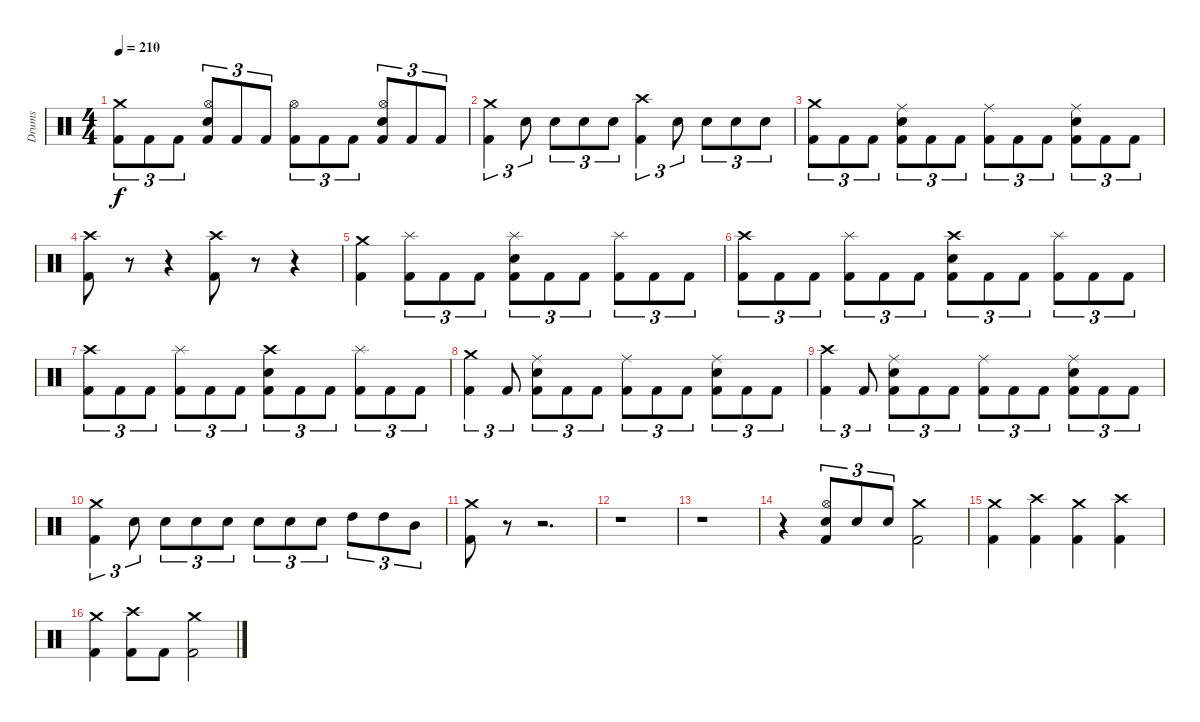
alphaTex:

\track ("Drums" "Drums") {instrument percussion}
\staff {score}
\articulation defaults
\ts (4 4)
\tempo 210
\clef neutral
\ks c
("Crash medium (hit)" "Kick (hit) 2").8{tu (3 2) dy f} "Kick (hit) 2".8{tu (3 2)} "Kick (hit) 2".8{tu (3 2)} ("Hi-Hat (open)" "Electric Snare (hit)" "Kick (hit) 2").8{tu (3 2)} "Kick (hit) 2".8{tu (3 2)} "Kick (hit) 2".8{tu (3 2)} ("Hi-Hat (open)" "Kick (hit) 2").8{tu (3 2)} "Kick (hit) 2".8{tu (3 2)} "Kick (hit) 2".8{tu (3 2)} ("Hi-Hat (open)" "Electric Snare (hit)" "Kick (hit) 2").8{tu (3 2)} "Kick (hit) 2".8{tu (3 2)} "Kick (hit) 2".8{tu (3 2)} |
("Crash medium (hit)" "Kick (hit) 2").4{tu (3 2)} "Electric Snare (hit)".8{tu (3 2)} "Electric Snare (hit)".8{tu (3 2)} "Electric Snare (hit)".8{tu (3 2)} "Electric Snare (hit)".8{tu (3 2)} ("Crash high (hit)" "Kick (hit) 2").4{tu (3 2)} "Electric Snare (hit)".8{tu (3 2)} "Electric Snare (hit)".8{tu (3 2)} "Electric Snare (hit)".8{tu (3 2)} "Electric Snare (hit)".8{tu (3 2)} |
("Crash medium (hit)" "Kick (hit) 2").8{tu (3 2)} "Kick (hit) 2".8{tu (3 2)} "Kick (hit) 2".8{tu (3 2)} ("Ride (middle)" "Electric Snare (hit)" "Kick (hit) 2").8{tu (3 2)} "Kick (hit) 2".8{tu (3 2)} "Kick (hit) 2".8{tu (3 2)} ("Ride (middle)" "Kick (hit) 2").8{tu (3 2)} "Kick (hit) 2".8{tu (3 2)} "Kick (hit) 2".8{tu (3 2)} ("Ride (middle)" "Electric Snare (hit)" "Kick (hit) 2").8{tu (3 2)} "Kick (hit) 2".8{tu (3 2)} "Kick (hit) 2".8{tu (3 2)} |
("Crash high (hit)" "Kick (hit) 2").8 r.8 r.4 ("Crash high (hit)" "Kick (hit) 2").8 r.8 r.4 |
("Crash medium (hit)" "Kick (hit) 2").4 ("Splash (hit)" "Kick (hit) 2").8{tu (3 2)} "Kick (hit) 2".8{tu (3 2)} "Kick (hit) 2".8{tu (3 2)} ("Splash (hit)" "Electric Snare (hit)" "Kick (hit) 2").8{tu (3 2)} "Kick (hit) 2".8{tu (3 2)} "Kick (hit) 2".8{tu (3 2)} ("Splash (hit)" "Kick (hit) 2").8{tu (3 2)} "Kick (hit) 2".8{tu (3 2)} "Kick (hit) 2".8{tu (3 2)} |
("Crash high (hit)" "Kick (hit) 2").8{tu (3 2)} "Kick (hit) 2".8{tu (3 2)} "Kick (hit) 2".8{tu (3 2)} ("Splash (hit)" "Kick (hit) 2").8{tu (3 2)} "Kick (hit) 2".8{tu (3 2)} "Kick (hit) 2".8{tu (3 2)} ("Crash high (hit)" "Electric Snare (hit)" "Kick (hit) 2").8{tu (3 2)} "Kick (hit) 2".8{tu (3 2)} "Kick (hit) 2".8{tu (3 2)} ("Splash (hit)" "Kick (hit) 2").8{tu (3 2)} "Kick (hit) 2".8{tu (3 2)} "Kick (hit) 2".8{tu (3 2)} |
("Crash high (hit)" "Kick (hit) 2").8{tu (3 2)} "Kick (hit) 2".8{tu (3 2)} "Kick (hit) 2".8{tu (3 2)} ("Splash (hit)" "Kick (hit) 2").8{tu (3 2)} "Kick (hit) 2".8{tu (3 2)} "Kick (hit) 2".8{tu (3 2)} ("Crash high (hit)" "Electric Snare (hit)" "Kick (hit) 2").8{tu (3 2)} "Kick (hit) 2".8{tu (3 2)} "Kick (hit) 2".8{tu (3 2)} ("Splash (hit)" "Kick (hit) 2").8{tu (3 2)} "Kick (hit) 2".8{tu (3 2)} "Kick (hit) 2".8{tu (3 2)} |
("Crash medium (hit)" "Kick (hit) 2").4{tu (3 2)} "Kick (hit) 2".8{tu (3 2)} ("Ride (middle)" "Electric Snare (hit)" "Kick (hit) 2").8{tu (3 2)} "Kick (hit) 2".8{tu (3 2)} "Kick (hit) 2".8{tu (3 2)} ("Ride (middle)" "Kick (hit) 2").8{tu (3 2)} "Kick (hit) 2".8{tu (3 2)} "Kick (hit) 2".8{tu (3 2)} ("Ride (middle)" "Electric Snare (hit)" "Kick (hit) 2").8{tu (3 2)} "Kick (hit) 2".8{tu (3 2)} "Kick (hit) 2".8{tu (3 2)} |
("Crash high (hit)" "Kick (hit) 2").4{tu (3 2)} "Kick (hit) 2".8{tu (3 2)} ("Ride (middle)" "Electric Snare (hit)" "Kick (hit) 2").8{tu (3 2)} "Kick (hit) 2".8{tu (3 2)} "Kick (hit) 2".8{tu (3 2)} ("Ride (middle)" "Kick (hit) 2").8{tu (3 2)} "Kick (hit) 2".8{tu (3 2)} "Kick (hit) 2".8{tu (3 2)} ("Ride (middle)" "Electric Snare (hit)" "Kick (hit) 2").8{tu (3 2)} "Kick (hit) 2".8{tu (3 2)} "Kick (hit) 2".8{tu (3 2)} |
("Crash medium (hit)" "Kick (hit) 2").4{tu (3 2)} "Electric Snare (hit)".8{tu (3 2)} "Electric Snare (hit)".8{tu (3 2)} "Electric Snare (hit)".8{tu (3 2)} "Electric Snare (hit)".8{tu (3 2)} "Electric Snare (hit)".8{tu (3 2)} "Electric Snare (hit)".8{tu (3 2)} "Electric Snare (hit)".8{tu (3 2)} "High Tom (hit)".8{tu (3 2)} "High Tom (hit)".8{tu (3 2)} "Mid Tom (hit)".8{tu (3 2)} |
("Crash medium (hit)" "Kick (hit) 2").8 r.8 r.2{d} |
r.1 |
r.1 |
r.4 ("Hi-Hat (open)" "Electric Snare (hit)" "Kick (hit) 2").8{tu (3 2)} "Electric Snare (hit)".8{tu (3 2)} "Electric Snare (hit)".8{tu (3 2)} ("Crash medium (hit)" "Kick (hit) 2").2 |
("Crash medium (hit)" "Kick (hit) 2").4 ("Crash high (hit)" "Kick (hit) 2").4 ("Crash medium (hit)" "Kick (hit) 2").4 ("Crash high (hit)" "Kick (hit) 2").4 |
("Crash medium (hit)" "Kick (hit) 2").4 ("Crash high (hit)" "Kick (hit) 2").8 "Kick (hit) 2".8 ("Crash medium (hit)" "Kick (hit) 2").2
